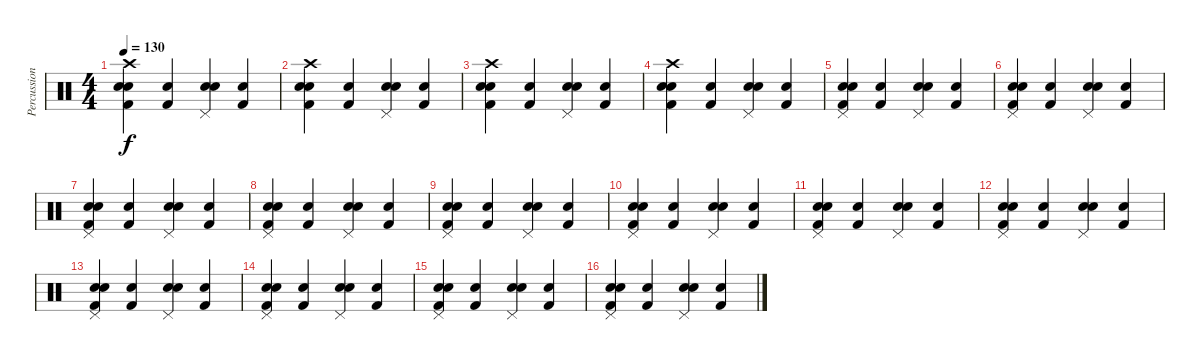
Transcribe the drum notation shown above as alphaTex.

\track ("Percussion" "Percussion") {instrument percussion}
\staff {score}
\articulation defaults
\ts (4 4)
\tempo 130
\clef neutral
\ks c
("Crash high (hit)" "Snare (hit) 2" "Kick (hit) 2" "Snare (hit) 2").4{dy f} ("Kick (hit) 2" "Snare (hit) 2").4 ("Pedal Hi-Hat (hit)" "Snare (hit) 2" "Snare (hit) 2").4 ("Snare (hit) 2" "Kick (hit) 2").4 |
("Crash high (hit)" "Snare (hit) 2" "Kick (hit) 2" "Snare (hit) 2").4 ("Kick (hit) 2" "Snare (hit) 2").4 ("Pedal Hi-Hat (hit)" "Snare (hit) 2" "Snare (hit) 2").4 ("Snare (hit) 2" "Kick (hit) 2").4 |
("Crash high (hit)" "Snare (hit) 2" "Kick (hit) 2" "Snare (hit) 2").4 ("Kick (hit) 2" "Snare (hit) 2").4 ("Pedal Hi-Hat (hit)" "Snare (hit) 2" "Snare (hit) 2").4 ("Snare (hit) 2" "Kick (hit) 2").4 |
("Crash high (hit)" "Snare (hit) 2" "Kick (hit) 2" "Snare (hit) 2").4 ("Kick (hit) 2" "Snare (hit) 2").4 ("Pedal Hi-Hat (hit)" "Snare (hit) 2" "Snare (hit) 2").4 ("Snare (hit) 2" "Kick (hit) 2").4 |
("Pedal Hi-Hat (hit)" "Snare (hit) 2" "Kick (hit) 2" "Snare (hit) 2").4{volume 10} ("Kick (hit) 2" "Snare (hit) 2").4 ("Pedal Hi-Hat (hit)" "Snare (hit) 2" "Snare (hit) 2").4 ("Snare (hit) 2" "Kick (hit) 2").4 |
("Pedal Hi-Hat (hit)" "Snare (hit) 2" "Kick (hit) 2" "Snare (hit) 2").4{volume 10} ("Kick (hit) 2" "Snare (hit) 2").4 ("Pedal Hi-Hat (hit)" "Snare (hit) 2" "Snare (hit) 2").4 ("Snare (hit) 2" "Kick (hit) 2").4 |
("Pedal Hi-Hat (hit)" "Snare (hit) 2" "Kick (hit) 2" "Snare (hit) 2").4{volume 10} ("Kick (hit) 2" "Snare (hit) 2").4 ("Pedal Hi-Hat (hit)" "Snare (hit) 2" "Snare (hit) 2").4 ("Snare (hit) 2" "Kick (hit) 2").4 |
("Pedal Hi-Hat (hit)" "Snare (hit) 2" "Kick (hit) 2" "Snare (hit) 2").4{volume 10} ("Kick (hit) 2" "Snare (hit) 2").4 ("Pedal Hi-Hat (hit)" "Snare (hit) 2" "Snare (hit) 2").4 ("Snare (hit) 2" "Kick (hit) 2").4 |
("Pedal Hi-Hat (hit)" "Snare (hit) 2" "Kick (hit) 2" "Snare (hit) 2").4{volume 10} ("Kick (hit) 2" "Snare (hit) 2").4 ("Pedal Hi-Hat (hit)" "Snare (hit) 2" "Snare (hit) 2").4 ("Snare (hit) 2" "Kick (hit) 2").4 |
("Pedal Hi-Hat (hit)" "Snare (hit) 2" "Kick (hit) 2" "Snare (hit) 2").4{volume 10} ("Kick (hit) 2" "Snare (hit) 2").4 ("Pedal Hi-Hat (hit)" "Snare (hit) 2" "Snare (hit) 2").4 ("Snare (hit) 2" "Kick (hit) 2").4 |
("Pedal Hi-Hat (hit)" "Snare (hit) 2" "Kick (hit) 2" "Snare (hit) 2").4{volume 10} ("Kick (hit) 2" "Snare (hit) 2").4 ("Pedal Hi-Hat (hit)" "Snare (hit) 2" "Snare (hit) 2").4 ("Snare (hit) 2" "Kick (hit) 2").4 |
("Pedal Hi-Hat (hit)" "Snare (hit) 2" "Kick (hit) 2" "Snare (hit) 2").4{volume 10} ("Kick (hit) 2" "Snare (hit) 2").4 ("Pedal Hi-Hat (hit)" "Snare (hit) 2" "Snare (hit) 2").4 ("Snare (hit) 2" "Kick (hit) 2").4 |
("Pedal Hi-Hat (hit)" "Snare (hit) 2" "Kick (hit) 2" "Snare (hit) 2").4{volume 10} ("Kick (hit) 2" "Snare (hit) 2").4 ("Pedal Hi-Hat (hit)" "Snare (hit) 2" "Snare (hit) 2").4 ("Snare (hit) 2" "Kick (hit) 2").4 |
("Pedal Hi-Hat (hit)" "Snare (hit) 2" "Kick (hit) 2" "Snare (hit) 2").4{volume 10} ("Kick (hit) 2" "Snare (hit) 2").4 ("Pedal Hi-Hat (hit)" "Snare (hit) 2" "Snare (hit) 2").4 ("Snare (hit) 2" "Kick (hit) 2").4 |
("Pedal Hi-Hat (hit)" "Snare (hit) 2" "Kick (hit) 2" "Snare (hit) 2").4{volume 10} ("Kick (hit) 2" "Snare (hit) 2").4 ("Pedal Hi-Hat (hit)" "Snare (hit) 2" "Snare (hit) 2").4 ("Snare (hit) 2" "Kick (hit) 2").4 |
("Pedal Hi-Hat (hit)" "Snare (hit) 2" "Kick (hit) 2" "Snare (hit) 2").4{volume 10} ("Kick (hit) 2" "Snare (hit) 2").4 ("Pedal Hi-Hat (hit)" "Snare (hit) 2" "Snare (hit) 2").4 ("Snare (hit) 2" "Kick (hit) 2").4
